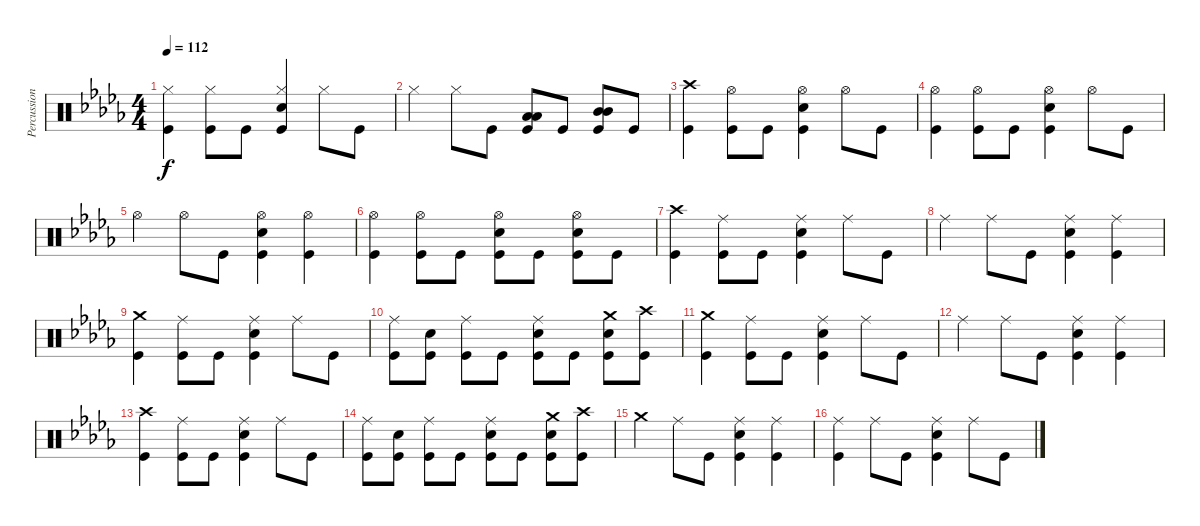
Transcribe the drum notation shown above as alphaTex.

\track ("Percussion" "Percussion") {instrument percussion}
\staff {score}
\articulation defaults
\ts (4 4)
\tempo 112
\clef neutral
\ks bbminor
("Kick (hit)" "Hi-Hat (closed)").4{dy f} ("Kick (hit)" "Hi-Hat (closed)").8 "Kick (hit)".8 ("Kick (hit)" "Snare (hit) 2" "Hi-Hat (closed)").4 "Hi-Hat (closed)".8 "Kick (hit)".8 |
"Hi-Hat (closed)".4 "Hi-Hat (closed)".8 "Kick (hit)".8 ("Kick (hit)" "Low Floor Tom (hit)" "Low Floor Tom (hit)").8 "Kick (hit)".8 ("Kick (hit)" "Mid Tom (hit)" "Mid Tom (hit)").8 "Kick (hit)".8 |
("Kick (hit)" "Crash high (hit)").4 ("Kick (hit)" "Hi-Hat (open)").8 "Kick (hit)".8 ("Kick (hit)" "Snare (hit) 2" "Hi-Hat (open)").4 "Hi-Hat (open)".8 "Kick (hit)".8 |
("Kick (hit)" "Hi-Hat (open)").4 ("Kick (hit)" "Hi-Hat (open)").8 "Kick (hit)".8 ("Kick (hit)" "Snare (hit) 2" "Hi-Hat (open)").4 "Hi-Hat (open)".8 "Kick (hit)".8 |
"Hi-Hat (open)".4 "Hi-Hat (open)".8 "Kick (hit)".8 ("Kick (hit)" "Snare (hit) 2" "Hi-Hat (open)").4 ("Kick (hit)" "Hi-Hat (open)").4 |
("Kick (hit)" "Hi-Hat (open)").4 ("Kick (hit)" "Hi-Hat (open)").8 "Kick (hit)".8 ("Kick (hit)" "Snare (hit) 2" "Hi-Hat (open)").8 "Kick (hit)".8 ("Kick (hit)" "Snare (hit) 2" "Hi-Hat (open)").8 "Kick (hit)".8 |
("Kick (hit)" "Crash high (hit)").4 ("Kick (hit)" "Ride (middle)").8 "Kick (hit)".8 ("Kick (hit)" "Snare (hit) 2" "Ride (middle)").4 "Ride (middle)".8 "Kick (hit)".8 |
"Ride (middle)".4 "Ride (middle)".8 "Kick (hit)".8 ("Kick (hit)" "Snare (hit) 2" "Ride (middle)").4 ("Kick (hit)" "Ride (middle)").4 |
("Kick (hit)" "Crash medium (hit)").4 ("Kick (hit)" "Ride (middle)").8 "Kick (hit)".8 ("Kick (hit)" "Snare (hit) 2" "Ride (middle)").4 "Ride (middle)".8 "Kick (hit)".8 |
("Kick (hit)" "Ride (middle)").8 ("Kick (hit)" "Snare (hit) 2").8 ("Kick (hit)" "Ride (middle)").8 "Kick (hit)".8 ("Kick (hit)" "Snare (hit) 2" "Ride (middle)").8 "Kick (hit)".8 ("Kick (hit)" "Snare (hit) 2" "Crash medium (hit)").8 ("Kick (hit)" "Crash high (hit)").8 |
("Kick (hit)" "Crash medium (hit)").4 ("Kick (hit)" "Ride (middle)").8 "Kick (hit)".8 ("Kick (hit)" "Snare (hit) 2" "Ride (middle)").4 "Ride (middle)".8 "Kick (hit)".8 |
"Ride (middle)".4 "Ride (middle)".8 "Kick (hit)".8 ("Kick (hit)" "Snare (hit) 2" "Ride (middle)").4 ("Kick (hit)" "Ride (middle)").4 |
("Kick (hit)" "Crash high (hit)").4 ("Kick (hit)" "Ride (middle)").8 "Kick (hit)".8 ("Kick (hit)" "Snare (hit) 2" "Ride (middle)").4 "Ride (middle)".8 "Kick (hit)".8 |
("Kick (hit)" "Ride (middle)").8 ("Kick (hit)" "Snare (hit) 2").8 ("Kick (hit)" "Ride (middle)").8 "Kick (hit)".8 ("Kick (hit)" "Snare (hit) 2" "Ride (middle)").8 "Kick (hit)".8 ("Kick (hit)" "Snare (hit) 2" "Crash medium (hit)").8 ("Kick (hit)" "Crash high (hit)").8 |
"Crash medium (hit)".4 "Ride (middle)".8 "Kick (hit)".8 ("Kick (hit)" "Snare (hit) 2" "Ride (middle)").4 ("Kick (hit)" "Ride (middle)").4 |
("Kick (hit)" "Ride (middle)").4 "Ride (middle)".8 "Kick (hit)".8 ("Kick (hit)" "Snare (hit) 2" "Ride (middle)").4 "Ride (middle)".8 "Kick (hit)".8
